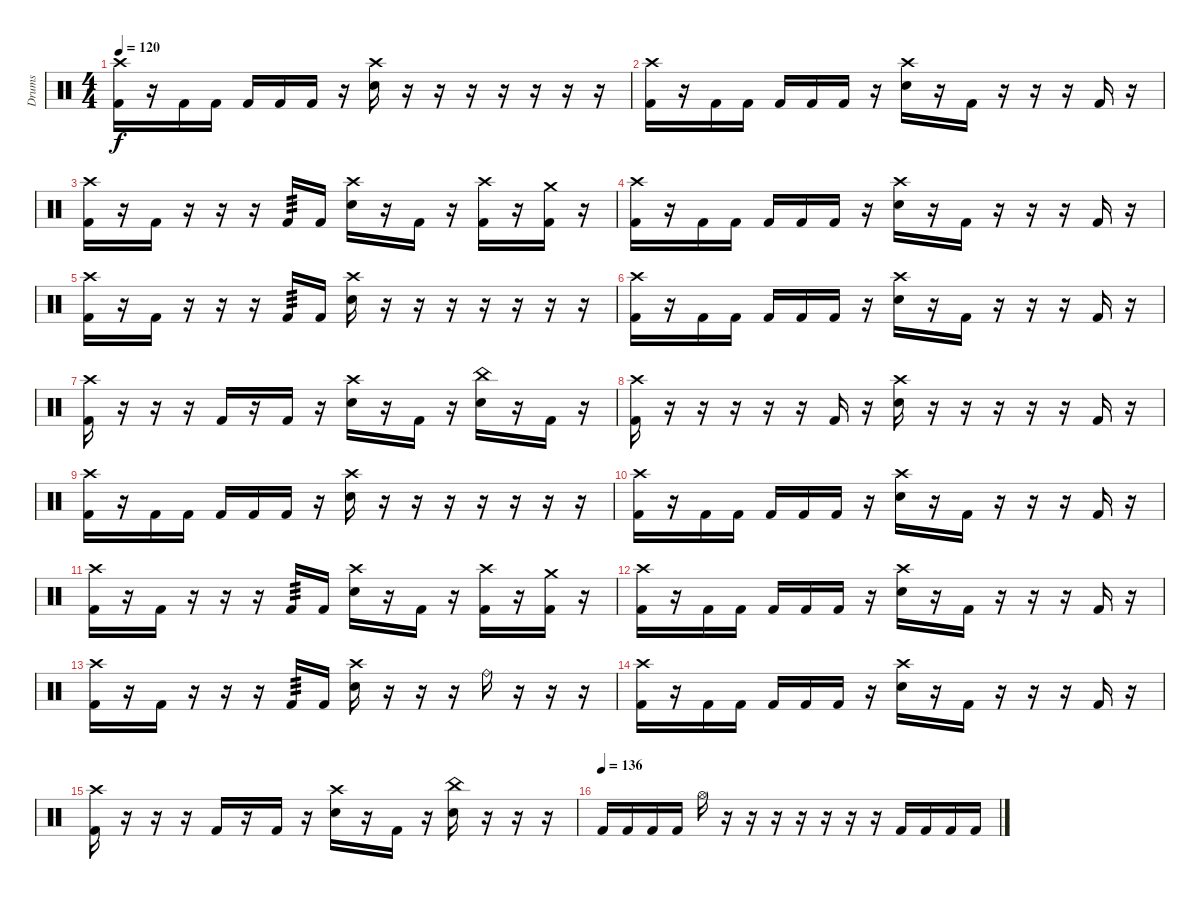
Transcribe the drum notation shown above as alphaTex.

\track ("Drums" "Drums") {instrument percussion}
\staff {score}
\articulation defaults
\ts (4 4)
\tempo 120
\clef neutral
\ks c
("Crash high (hit)" "Kick (hit) 2").16{dy f} r.16 "Kick (hit) 2".16 "Kick (hit) 2".16 "Kick (hit) 2".16 "Kick (hit) 2".16 "Kick (hit) 2".16 r.16 ("Crash high (hit)" "Snare (hit) 2").16 r.16 r.16 r.16 r.16 r.16 r.16 r.16 |
("Crash high (hit)" "Kick (hit) 2").16 r.16 "Kick (hit) 2".16 "Kick (hit) 2".16 "Kick (hit) 2".16 "Kick (hit) 2".16 "Kick (hit) 2".16 r.16 ("Crash high (hit)" "Snare (hit) 2").16 r.16 "Kick (hit) 2".16 r.16 r.16 r.16 "Kick (hit) 2".16 r.16 |
("Crash high (hit)" "Kick (hit) 2").16 r.16 "Kick (hit) 2".16 r.16 r.16 r.16 "Kick (hit) 2".16{tp 3} "Kick (hit) 2".16 ("Crash high (hit)" "Snare (hit) 2").16 r.16 "Kick (hit) 2".16 r.16 ("Crash high (hit)" "Kick (hit) 2").16 r.16 ("Crash medium (hit)" "Kick (hit) 2").16 r.16 |
("Crash high (hit)" "Kick (hit) 2").16 r.16 "Kick (hit) 2".16 "Kick (hit) 2".16 "Kick (hit) 2".16 "Kick (hit) 2".16 "Kick (hit) 2".16 r.16 ("Crash high (hit)" "Snare (hit) 2").16 r.16 "Kick (hit) 2".16 r.16 r.16 r.16 "Kick (hit) 2".16 r.16 |
("Crash high (hit)" "Kick (hit) 2").16 r.16 "Kick (hit) 2".16 r.16 r.16 r.16 "Kick (hit) 2".16{tp 3} "Kick (hit) 2".16 ("Crash high (hit)" "Snare (hit) 2").16 r.16 r.16 r.16 r.16 r.16 r.16 r.16 |
("Crash high (hit)" "Kick (hit) 2").16 r.16 "Kick (hit) 2".16 "Kick (hit) 2".16 "Kick (hit) 2".16 "Kick (hit) 2".16 "Kick (hit) 2".16 r.16 ("Crash high (hit)" "Snare (hit) 2").16 r.16 "Kick (hit) 2".16 r.16 r.16 r.16 "Kick (hit) 2".16 r.16 |
("Crash high (hit)" "Kick (hit) 2").16 r.16 r.16 r.16 "Kick (hit) 2".16 r.16 "Kick (hit) 2".16 r.16 ("Crash high (hit)" "Snare (hit) 2").16 r.16 "Kick (hit) 2".16 r.16 ("China (hit)" "Snare (hit) 2").16 r.16 "Kick (hit) 2".16 r.16 |
("Crash high (hit)" "Kick (hit) 2").16 r.16 r.16 r.16 r.16 r.16 "Kick (hit) 2".16 r.16 ("Crash high (hit)" "Snare (hit) 2").16 r.16 r.16 r.16 r.16 r.16 "Kick (hit) 2".16 r.16 |
("Crash high (hit)" "Kick (hit) 2").16 r.16 "Kick (hit) 2".16 "Kick (hit) 2".16 "Kick (hit) 2".16 "Kick (hit) 2".16 "Kick (hit) 2".16 r.16 ("Crash high (hit)" "Snare (hit) 2").16 r.16 r.16 r.16 r.16 r.16 r.16 r.16 |
("Crash high (hit)" "Kick (hit) 2").16 r.16 "Kick (hit) 2".16 "Kick (hit) 2".16 "Kick (hit) 2".16 "Kick (hit) 2".16 "Kick (hit) 2".16 r.16 ("Crash high (hit)" "Snare (hit) 2").16 r.16 "Kick (hit) 2".16 r.16 r.16 r.16 "Kick (hit) 2".16 r.16 |
("Crash high (hit)" "Kick (hit) 2").16 r.16 "Kick (hit) 2".16 r.16 r.16 r.16 "Kick (hit) 2".16{tp 3} "Kick (hit) 2".16 ("Crash high (hit)" "Snare (hit) 2").16 r.16 "Kick (hit) 2".16 r.16 ("Crash high (hit)" "Kick (hit) 2").16 r.16 ("Crash medium (hit)" "Kick (hit) 2").16 r.16 |
("Crash high (hit)" "Kick (hit) 2").16 r.16 "Kick (hit) 2".16 "Kick (hit) 2".16 "Kick (hit) 2".16 "Kick (hit) 2".16 "Kick (hit) 2".16 r.16 ("Crash high (hit)" "Snare (hit) 2").16 r.16 "Kick (hit) 2".16 r.16 r.16 r.16 "Kick (hit) 2".16 r.16 |
("Crash high (hit)" "Kick (hit) 2").16 r.16 "Kick (hit) 2".16 r.16 r.16 r.16 "Kick (hit) 2".16{tp 3} "Kick (hit) 2".16 ("Crash high (hit)" "Snare (hit) 2").16 r.16 r.16 r.16 "Ride (bell)".16 r.16 r.16 r.16 |
("Crash high (hit)" "Kick (hit) 2").16 r.16 "Kick (hit) 2".16 "Kick (hit) 2".16 "Kick (hit) 2".16 "Kick (hit) 2".16 "Kick (hit) 2".16 r.16 ("Crash high (hit)" "Snare (hit) 2").16 r.16 "Kick (hit) 2".16 r.16 r.16 r.16 "Kick (hit) 2".16 r.16 |
("Crash high (hit)" "Kick (hit) 2").16 r.16 r.16 r.16 "Kick (hit) 2".16 r.16 "Kick (hit) 2".16 r.16 ("Crash high (hit)" "Snare (hit) 2").16 r.16 "Kick (hit) 2".16 r.16 ("China (hit)" "Snare (hit) 2").16 r.16 r.16 r.16 |
\tempo (136)
"Kick (hit) 2".16 "Kick (hit) 2".16 "Kick (hit) 2".16 "Kick (hit) 2".16 "Hi-Hat (open)".16 r.16 r.16 r.16 r.16 r.16 r.16 r.16 "Kick (hit) 2".16 "Kick (hit) 2".16 "Kick (hit) 2".16 "Kick (hit) 2".16
